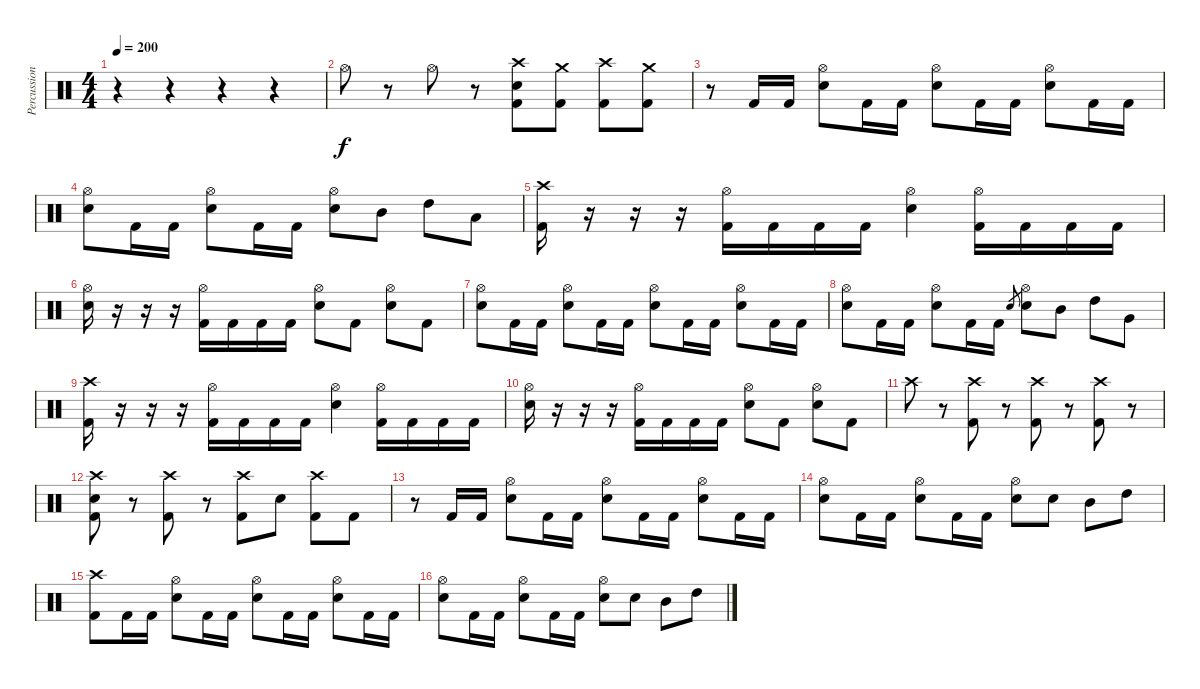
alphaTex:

\track ("Percussions" "Percussion") {instrument percussion}
\staff {score}
\articulation defaults
\ts (4 4)
\tempo 200
\clef neutral
\ks c
r.4{dy f} r.4 r.4 r.4 |
"Hi-Hat (open)".8 r.8 "Hi-Hat (open)".8 r.8 ("Kick (hit) 2" "Electric Snare (hit)" "Crash high (hit)").8 ("Kick (hit) 2" "Crash medium (hit)").8 ("Kick (hit) 2" "Crash high (hit)").8 ("Kick (hit) 2" "Crash medium (hit)").8 |
r.8 "Kick (hit) 2".16 "Kick (hit) 2".16 ("Electric Snare (hit)" "Hi-Hat (open)").8 "Kick (hit) 2".16 "Kick (hit) 2".16 ("Electric Snare (hit)" "Hi-Hat (open)").8 "Kick (hit) 2".16 "Kick (hit) 2".16 ("Electric Snare (hit)" "Hi-Hat (open)").8 "Kick (hit) 2".16 "Kick (hit) 2".16 |
("Electric Snare (hit)" "Hi-Hat (open)").8 "Kick (hit) 2".16 "Kick (hit) 2".16 ("Electric Snare (hit)" "Hi-Hat (open)").8 "Kick (hit) 2".16 "Kick (hit) 2".16 ("Electric Snare (hit)" "Hi-Hat (open)").8 "Mid Tom (hit)".8 "High Tom (hit)".8 "Low Tom (hit)".8 |
("Kick (hit) 2" "Crash high (hit)").16 r.16 r.16 r.16 ("Kick (hit) 2" "Hi-Hat (open)").16 "Kick (hit) 2".16 "Kick (hit) 2".16 "Kick (hit) 2".16 ("Electric Snare (hit)" "Hi-Hat (open)").4 ("Kick (hit) 2" "Hi-Hat (open)").16 "Kick (hit) 2".16 "Kick (hit) 2".16 "Kick (hit) 2".16 |
("Electric Snare (hit)" "Hi-Hat (open)").16 r.16 r.16 r.16 ("Kick (hit) 2" "Hi-Hat (open)").16 "Kick (hit) 2".16 "Kick (hit) 2".16 "Kick (hit) 2".16 ("Electric Snare (hit)" "Hi-Hat (open)").8 "Kick (hit) 2".8 ("Electric Snare (hit)" "Hi-Hat (open)").8 "Kick (hit) 2".8 |
("Electric Snare (hit)" "Hi-Hat (open)").8 "Kick (hit) 2".16 "Kick (hit) 2".16 ("Electric Snare (hit)" "Hi-Hat (open)").8 "Kick (hit) 2".16 "Kick (hit) 2".16 ("Electric Snare (hit)" "Hi-Hat (open)").8 "Kick (hit) 2".16 "Kick (hit) 2".16 ("Electric Snare (hit)" "Hi-Hat (open)").8 "Kick (hit) 2".16 "Kick (hit) 2".16 |
("Electric Snare (hit)" "Hi-Hat (open)").8 "Kick (hit) 2".16 "Kick (hit) 2".16 ("Electric Snare (hit)" "Hi-Hat (open)").8 "Kick (hit) 2".16 "Kick (hit) 2".16 "Electric Snare (hit)".8{gr} ("Electric Snare (hit)" "Hi-Hat (open)").8 "Mid Tom (hit)".8 "High Tom (hit)".8 "Very Low Tom (hit)".8 |
("Kick (hit) 2" "Crash high (hit)").16 r.16 r.16 r.16 ("Kick (hit) 2" "Hi-Hat (open)").16 "Kick (hit) 2".16 "Kick (hit) 2".16 "Kick (hit) 2".16 ("Electric Snare (hit)" "Hi-Hat (open)").4 ("Kick (hit) 2" "Hi-Hat (open)").16 "Kick (hit) 2".16 "Kick (hit) 2".16 "Kick (hit) 2".16 |
("Electric Snare (hit)" "Hi-Hat (open)").16 r.16 r.16 r.16 ("Kick (hit) 2" "Hi-Hat (open)").16 "Kick (hit) 2".16 "Kick (hit) 2".16 "Kick (hit) 2".16 ("Electric Snare (hit)" "Hi-Hat (open)").8 "Kick (hit) 2".8 ("Electric Snare (hit)" "Hi-Hat (open)").8 "Kick (hit) 2".8 |
"Crash high (hit)".8 r.8 ("Kick (hit) 2" "Crash high (hit)").8 r.8 ("Kick (hit) 2" "Crash high (hit)").8 r.8 ("Kick (hit) 2" "Crash high (hit)").8 r.8 |
("Kick (hit) 2" "Electric Snare (hit)" "Crash high (hit)").8 r.8 ("Kick (hit) 2" "Crash high (hit)").8 r.8 ("Kick (hit) 2" "Crash high (hit)").8 "Electric Snare (hit)".8 ("Kick (hit) 2" "Crash high (hit)").8 "Kick (hit) 2".8 |
r.8 "Kick (hit) 2".16 "Kick (hit) 2".16 ("Electric Snare (hit)" "Hi-Hat (open)").8 "Kick (hit) 2".16 "Kick (hit) 2".16 ("Electric Snare (hit)" "Hi-Hat (open)").8 "Kick (hit) 2".16 "Kick (hit) 2".16 ("Electric Snare (hit)" "Hi-Hat (open)").8 "Kick (hit) 2".16 "Kick (hit) 2".16 |
("Electric Snare (hit)" "Hi-Hat (open)").8 "Kick (hit) 2".16 "Kick (hit) 2".16 ("Electric Snare (hit)" "Hi-Hat (open)").8 "Kick (hit) 2".16 "Kick (hit) 2".16 ("Electric Snare (hit)" "Hi-Hat (open)").8 "Electric Snare (hit)".8 "Mid Tom (hit)".8 "High Tom (hit)".8 |
("Kick (hit) 2" "Crash high (hit)").8 "Kick (hit) 2".16 "Kick (hit) 2".16 ("Electric Snare (hit)" "Hi-Hat (open)").8 "Kick (hit) 2".16 "Kick (hit) 2".16 ("Electric Snare (hit)" "Hi-Hat (open)").8 "Kick (hit) 2".16 "Kick (hit) 2".16 ("Electric Snare (hit)" "Hi-Hat (open)").8 "Kick (hit) 2".16 "Kick (hit) 2".16 |
("Electric Snare (hit)" "Hi-Hat (open)").8 "Kick (hit) 2".16 "Kick (hit) 2".16 ("Electric Snare (hit)" "Hi-Hat (open)").8 "Kick (hit) 2".16 "Kick (hit) 2".16 ("Electric Snare (hit)" "Hi-Hat (open)").8 "Electric Snare (hit)".8 "Mid Tom (hit)".8 "High Tom (hit)".8
